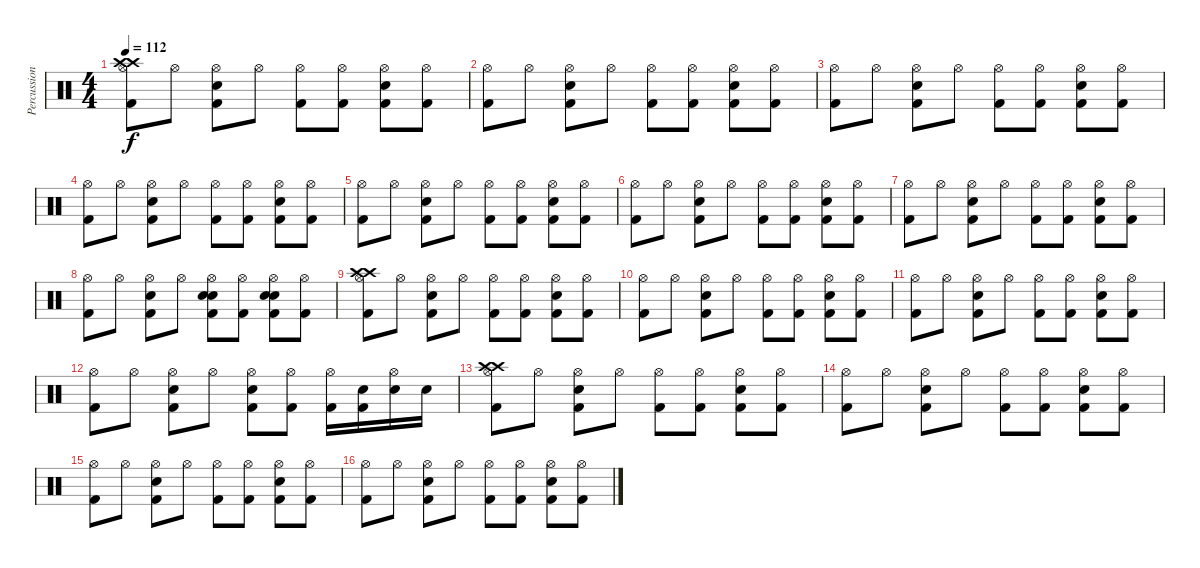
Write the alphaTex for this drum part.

\track ("Percussion" "Percussion") {instrument percussion}
\staff {score}
\articulation defaults
\ts (4 4)
\tempo 112
\clef neutral
\ks c
("Hi-Hat (open)" "Crash high (hit)" "Crash high (hit)" "Kick (hit) 2").8{dy f} "Hi-Hat (open)".8 ("Hi-Hat (open)" "Electric Snare (hit)" "Kick (hit) 2").8 "Hi-Hat (open)".8 ("Hi-Hat (open)" "Kick (hit) 2").8 ("Hi-Hat (open)" "Kick (hit) 2").8 ("Hi-Hat (open)" "Electric Snare (hit)" "Kick (hit) 2").8 ("Hi-Hat (open)" "Kick (hit) 2").8 |
("Hi-Hat (open)" "Kick (hit) 2").8 "Hi-Hat (open)".8 ("Hi-Hat (open)" "Electric Snare (hit)" "Kick (hit) 2").8 "Hi-Hat (open)".8 ("Hi-Hat (open)" "Kick (hit) 2").8 ("Hi-Hat (open)" "Kick (hit) 2").8 ("Hi-Hat (open)" "Electric Snare (hit)" "Kick (hit) 2").8 ("Hi-Hat (open)" "Kick (hit) 2").8 |
("Hi-Hat (open)" "Kick (hit) 2").8 "Hi-Hat (open)".8 ("Hi-Hat (open)" "Electric Snare (hit)" "Kick (hit) 2").8 "Hi-Hat (open)".8 ("Hi-Hat (open)" "Kick (hit) 2").8 ("Hi-Hat (open)" "Kick (hit) 2").8 ("Hi-Hat (open)" "Electric Snare (hit)" "Kick (hit) 2").8 ("Hi-Hat (open)" "Kick (hit) 2").8 |
("Hi-Hat (open)" "Kick (hit) 2").8 "Hi-Hat (open)".8 ("Hi-Hat (open)" "Electric Snare (hit)" "Kick (hit) 2").8 "Hi-Hat (open)".8 ("Hi-Hat (open)" "Kick (hit) 2").8 ("Hi-Hat (open)" "Kick (hit) 2").8 ("Hi-Hat (open)" "Electric Snare (hit)" "Kick (hit) 2").8 ("Hi-Hat (open)" "Kick (hit) 2").8 |
("Hi-Hat (open)" "Kick (hit) 2").8 "Hi-Hat (open)".8 ("Hi-Hat (open)" "Electric Snare (hit)" "Kick (hit) 2").8 "Hi-Hat (open)".8 ("Hi-Hat (open)" "Kick (hit) 2").8 ("Hi-Hat (open)" "Kick (hit) 2").8 ("Hi-Hat (open)" "Electric Snare (hit)" "Kick (hit) 2").8 ("Hi-Hat (open)" "Kick (hit) 2").8 |
("Hi-Hat (open)" "Kick (hit) 2").8 "Hi-Hat (open)".8 ("Hi-Hat (open)" "Electric Snare (hit)" "Kick (hit) 2").8 "Hi-Hat (open)".8 ("Hi-Hat (open)" "Kick (hit) 2").8 ("Hi-Hat (open)" "Kick (hit) 2").8 ("Hi-Hat (open)" "Electric Snare (hit)" "Kick (hit) 2").8 ("Hi-Hat (open)" "Kick (hit) 2").8 |
("Hi-Hat (open)" "Kick (hit) 2").8 "Hi-Hat (open)".8 ("Hi-Hat (open)" "Electric Snare (hit)" "Kick (hit) 2").8 "Hi-Hat (open)".8 ("Hi-Hat (open)" "Kick (hit) 2").8 ("Hi-Hat (open)" "Kick (hit) 2").8 ("Hi-Hat (open)" "Electric Snare (hit)" "Kick (hit) 2").8 ("Hi-Hat (open)" "Kick (hit) 2").8 |
("Hi-Hat (open)" "Kick (hit) 2").8 "Hi-Hat (open)".8 ("Hi-Hat (open)" "Electric Snare (hit)" "Kick (hit) 2").8 "Hi-Hat (open)".8 ("Hi-Hat (open)" "Electric Snare (hit)" "Electric Snare (hit)" "Kick (hit) 2").8 ("Hi-Hat (open)" "Kick (hit) 2").8 ("Hi-Hat (open)" "Electric Snare (hit)" "Electric Snare (hit)" "Kick (hit) 2").8 ("Hi-Hat (open)" "Kick (hit) 2").8 |
("Hi-Hat (open)" "Crash high (hit)" "Crash high (hit)" "Kick (hit) 2").8 "Hi-Hat (open)".8 ("Hi-Hat (open)" "Electric Snare (hit)" "Kick (hit) 2").8 "Hi-Hat (open)".8 ("Hi-Hat (open)" "Kick (hit) 2").8 ("Hi-Hat (open)" "Kick (hit) 2").8 ("Hi-Hat (open)" "Electric Snare (hit)" "Kick (hit) 2").8 ("Hi-Hat (open)" "Kick (hit) 2").8 |
("Hi-Hat (open)" "Kick (hit) 2").8 "Hi-Hat (open)".8 ("Hi-Hat (open)" "Electric Snare (hit)" "Kick (hit) 2").8 "Hi-Hat (open)".8 ("Hi-Hat (open)" "Kick (hit) 2").8 ("Hi-Hat (open)" "Kick (hit) 2").8 ("Hi-Hat (open)" "Electric Snare (hit)" "Kick (hit) 2").8 ("Hi-Hat (open)" "Kick (hit) 2").8 |
("Hi-Hat (open)" "Kick (hit) 2").8 "Hi-Hat (open)".8 ("Hi-Hat (open)" "Electric Snare (hit)" "Kick (hit) 2").8 "Hi-Hat (open)".8 ("Hi-Hat (open)" "Kick (hit) 2").8 ("Hi-Hat (open)" "Kick (hit) 2").8 ("Hi-Hat (open)" "Electric Snare (hit)" "Kick (hit) 2").8 ("Hi-Hat (open)" "Kick (hit) 2").8 |
("Hi-Hat (open)" "Kick (hit) 2").8 "Hi-Hat (open)".8 ("Hi-Hat (open)" "Electric Snare (hit)" "Kick (hit) 2").8 "Hi-Hat (open)".8 ("Hi-Hat (open)" "Electric Snare (hit)" "Kick (hit) 2").8 ("Hi-Hat (open)" "Kick (hit) 2").8 ("Hi-Hat (open)" "Kick (hit) 2").16 ("Electric Snare (hit)" "Kick (hit) 2").16 ("Hi-Hat (open)" "Electric Snare (hit)").16 "Snare (hit) 2".16 |
("Hi-Hat (open)" "Crash high (hit)" "Crash high (hit)" "Kick (hit) 2").8 "Hi-Hat (open)".8 ("Hi-Hat (open)" "Electric Snare (hit)" "Kick (hit) 2").8 "Hi-Hat (open)".8 ("Hi-Hat (open)" "Kick (hit) 2").8 ("Hi-Hat (open)" "Kick (hit) 2").8 ("Hi-Hat (open)" "Electric Snare (hit)" "Kick (hit) 2").8 ("Hi-Hat (open)" "Kick (hit) 2").8 |
("Hi-Hat (open)" "Kick (hit) 2").8 "Hi-Hat (open)".8 ("Hi-Hat (open)" "Electric Snare (hit)" "Kick (hit) 2").8 "Hi-Hat (open)".8 ("Hi-Hat (open)" "Kick (hit) 2").8 ("Hi-Hat (open)" "Kick (hit) 2").8 ("Hi-Hat (open)" "Electric Snare (hit)" "Kick (hit) 2").8 ("Hi-Hat (open)" "Kick (hit) 2").8 |
("Hi-Hat (open)" "Kick (hit) 2").8 "Hi-Hat (open)".8 ("Hi-Hat (open)" "Electric Snare (hit)" "Kick (hit) 2").8 "Hi-Hat (open)".8 ("Hi-Hat (open)" "Kick (hit) 2").8 ("Hi-Hat (open)" "Kick (hit) 2").8 ("Hi-Hat (open)" "Electric Snare (hit)" "Kick (hit) 2").8 ("Hi-Hat (open)" "Kick (hit) 2").8 |
("Hi-Hat (open)" "Kick (hit) 2").8 "Hi-Hat (open)".8 ("Hi-Hat (open)" "Electric Snare (hit)" "Kick (hit) 2").8 "Hi-Hat (open)".8 ("Hi-Hat (open)" "Kick (hit) 2").8 ("Hi-Hat (open)" "Kick (hit) 2").8 ("Hi-Hat (open)" "Electric Snare (hit)" "Kick (hit) 2").8 ("Hi-Hat (open)" "Kick (hit) 2").8
